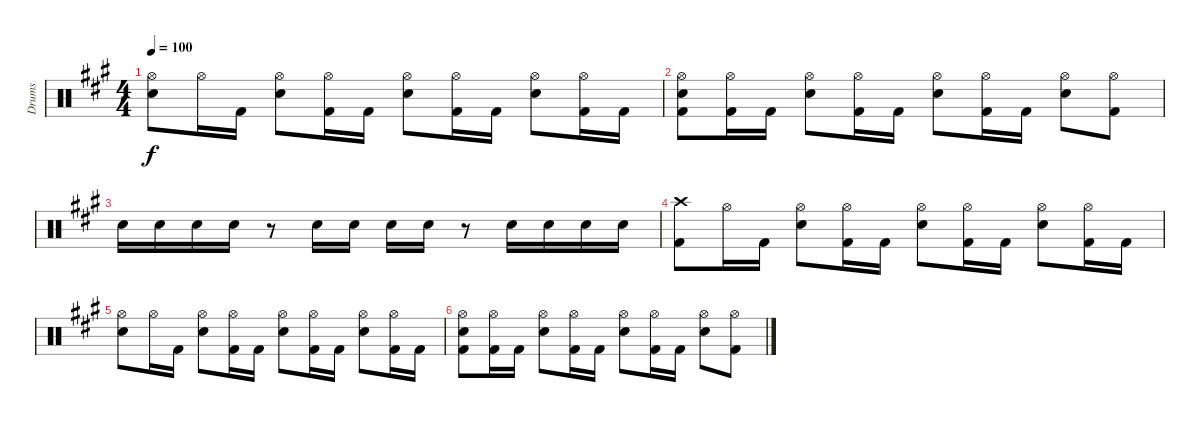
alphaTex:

\track ("Drums" "Drums") {instrument percussion}
\staff {score}
\articulation defaults
\ts (4 4)
\tempo 100
\clef neutral
\ks f#minor
("Hi-Hat (open)" "Snare (hit) 2").8{dy f} "Hi-Hat (open)".16 "Kick (hit) 2".16 ("Hi-Hat (open)" "Snare (hit) 2").8 ("Hi-Hat (open)" "Kick (hit) 2").16 "Kick (hit) 2".16 ("Hi-Hat (open)" "Snare (hit) 2").8 ("Hi-Hat (open)" "Kick (hit) 2").16 "Kick (hit) 2".16 ("Hi-Hat (open)" "Snare (hit) 2").8 ("Hi-Hat (open)" "Kick (hit) 2").16 "Kick (hit) 2".16 |
("Hi-Hat (open)" "Snare (hit) 2" "Kick (hit) 2").8 ("Hi-Hat (open)" "Kick (hit) 2").16 "Kick (hit) 2".16 ("Hi-Hat (open)" "Snare (hit) 2").8 ("Hi-Hat (open)" "Kick (hit) 2").16 "Kick (hit) 2".16 ("Hi-Hat (open)" "Snare (hit) 2").8 ("Hi-Hat (open)" "Kick (hit) 2").16 "Kick (hit) 2".16 ("Hi-Hat (open)" "Snare (hit) 2").8 ("Hi-Hat (open)" "Kick (hit) 2").8 |
"Snare (hit) 2".16 "Snare (hit) 2".16 "Snare (hit) 2".16 "Snare (hit) 2".16 r.8 "Snare (hit) 2".16 "Snare (hit) 2".16 "Snare (hit) 2".16 "Snare (hit) 2".16 r.8 "Snare (hit) 2".16 "Snare (hit) 2".16 "Snare (hit) 2".16 "Snare (hit) 2".16 |
("Crash high (hit)" "Kick (hit) 2").8 "Hi-Hat (open)".16 "Kick (hit) 2".16 ("Hi-Hat (open)" "Snare (hit) 2").8 ("Hi-Hat (open)" "Kick (hit) 2").16 "Kick (hit) 2".16 ("Hi-Hat (open)" "Snare (hit) 2").8 ("Hi-Hat (open)" "Kick (hit) 2").16 "Kick (hit) 2".16 ("Hi-Hat (open)" "Snare (hit) 2").8 ("Hi-Hat (open)" "Kick (hit) 2").16 "Kick (hit) 2".16 |
("Hi-Hat (open)" "Snare (hit) 2").8 "Hi-Hat (open)".16 "Kick (hit) 2".16 ("Hi-Hat (open)" "Snare (hit) 2").8 ("Hi-Hat (open)" "Kick (hit) 2").16 "Kick (hit) 2".16 ("Hi-Hat (open)" "Snare (hit) 2").8 ("Hi-Hat (open)" "Kick (hit) 2").16 "Kick (hit) 2".16 ("Hi-Hat (open)" "Snare (hit) 2").8 ("Hi-Hat (open)" "Kick (hit) 2").16 "Kick (hit) 2".16 |
("Hi-Hat (open)" "Snare (hit) 2" "Kick (hit) 2").8 ("Hi-Hat (open)" "Kick (hit) 2").16 "Kick (hit) 2".16 ("Hi-Hat (open)" "Snare (hit) 2").8 ("Hi-Hat (open)" "Kick (hit) 2").16 "Kick (hit) 2".16 ("Hi-Hat (open)" "Snare (hit) 2").8 ("Hi-Hat (open)" "Kick (hit) 2").16 "Kick (hit) 2".16 ("Hi-Hat (open)" "Snare (hit) 2").8 ("Hi-Hat (open)" "Kick (hit) 2").8
